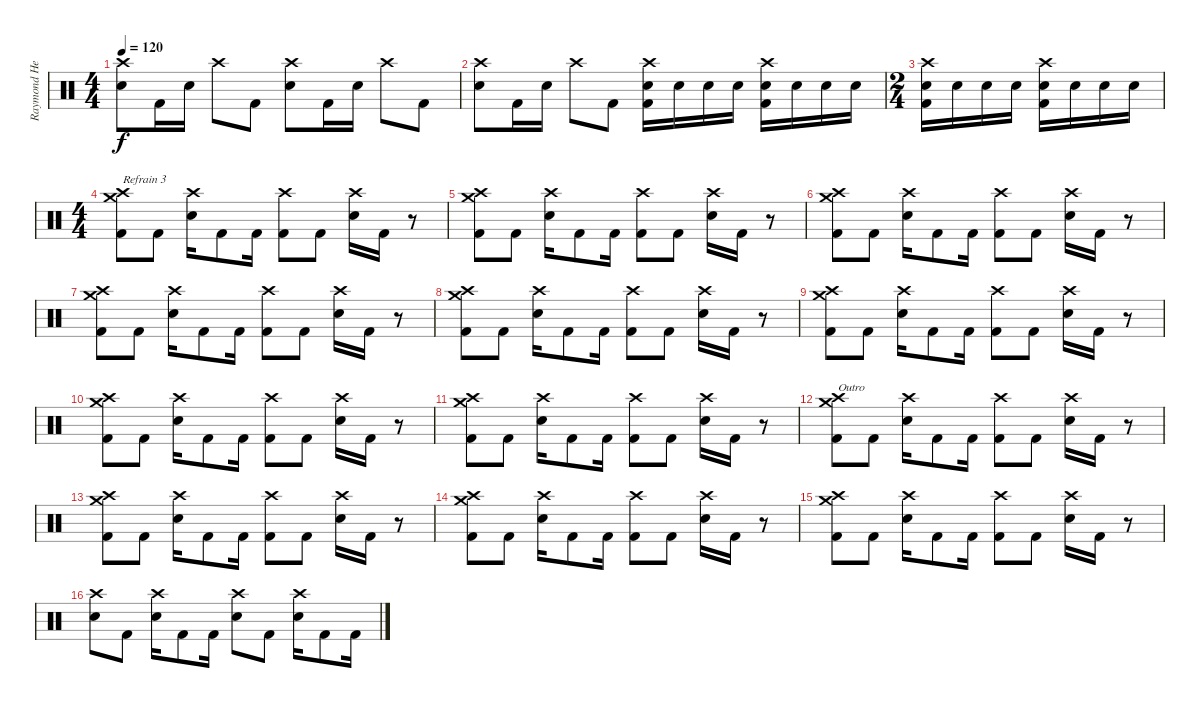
\track ("Raymond Herrera" "Raymond He") {instrument percussion}
\staff {score}
\articulation defaults
\ts (4 4)
\tempo 120
\clef neutral
\ks c
("Crash high (hit)" "Electric Snare (hit)").8{dy f} "Kick (hit) 2".16 "Electric Snare (hit)".16 "Crash high (hit)".8 "Kick (hit) 2".8 ("Crash high (hit)" "Electric Snare (hit)").8 "Kick (hit) 2".16 "Electric Snare (hit)".16 "Crash high (hit)".8 "Kick (hit) 2".8 |
("Crash high (hit)" "Electric Snare (hit)").8 "Kick (hit) 2".16 "Electric Snare (hit)".16 "Crash high (hit)".8 "Kick (hit) 2".8 ("Crash high (hit)" "Electric Snare (hit)" "Kick (hit) 2").16 "Electric Snare (hit)".16 "Electric Snare (hit)".16 "Electric Snare (hit)".16 ("Crash high (hit)" "Electric Snare (hit)" "Kick (hit) 2").16 "Electric Snare (hit)".16 "Electric Snare (hit)".16 "Electric Snare (hit)".16 |
\ts (2 4)
("Crash high (hit)" "Electric Snare (hit)" "Kick (hit) 2").16 "Electric Snare (hit)".16 "Electric Snare (hit)".16 "Electric Snare (hit)".16 ("Crash high (hit)" "Electric Snare (hit)" "Kick (hit) 2").16 "Electric Snare (hit)".16 "Electric Snare (hit)".16 "Electric Snare (hit)".16 |
\ts (4 4)
("Crash medium (hit)" "Crash high (hit)" "Kick (hit) 2").8{txt "Refrain 3"} "Kick (hit) 2".8 ("Crash high (hit)" "Electric Snare (hit)").16 "Kick (hit) 2".8 "Kick (hit) 2".16 ("Crash high (hit)" "Kick (hit) 2").8 "Kick (hit) 2".8 ("Crash high (hit)" "Electric Snare (hit)").16 "Kick (hit) 2".16 r.8 |
("Crash medium (hit)" "Crash high (hit)" "Kick (hit) 2").8 "Kick (hit) 2".8 ("Crash high (hit)" "Electric Snare (hit)").16 "Kick (hit) 2".8 "Kick (hit) 2".16 ("Crash high (hit)" "Kick (hit) 2").8 "Kick (hit) 2".8 ("Crash high (hit)" "Electric Snare (hit)").16 "Kick (hit) 2".16 r.8 |
("Crash medium (hit)" "Crash high (hit)" "Kick (hit) 2").8 "Kick (hit) 2".8 ("Crash high (hit)" "Electric Snare (hit)").16 "Kick (hit) 2".8 "Kick (hit) 2".16 ("Crash high (hit)" "Kick (hit) 2").8 "Kick (hit) 2".8 ("Crash high (hit)" "Electric Snare (hit)").16 "Kick (hit) 2".16 r.8 |
("Crash medium (hit)" "Crash high (hit)" "Kick (hit) 2").8 "Kick (hit) 2".8 ("Crash high (hit)" "Electric Snare (hit)").16 "Kick (hit) 2".8 "Kick (hit) 2".16 ("Crash high (hit)" "Kick (hit) 2").8 "Kick (hit) 2".8 ("Crash high (hit)" "Electric Snare (hit)").16 "Kick (hit) 2".16 r.8 |
("Crash medium (hit)" "Crash high (hit)" "Kick (hit) 2").8 "Kick (hit) 2".8 ("Crash high (hit)" "Electric Snare (hit)").16 "Kick (hit) 2".8 "Kick (hit) 2".16 ("Crash high (hit)" "Kick (hit) 2").8 "Kick (hit) 2".8 ("Crash high (hit)" "Electric Snare (hit)").16 "Kick (hit) 2".16 r.8 |
("Crash medium (hit)" "Crash high (hit)" "Kick (hit) 2").8 "Kick (hit) 2".8 ("Crash high (hit)" "Electric Snare (hit)").16 "Kick (hit) 2".8 "Kick (hit) 2".16 ("Crash high (hit)" "Kick (hit) 2").8 "Kick (hit) 2".8 ("Crash high (hit)" "Electric Snare (hit)").16 "Kick (hit) 2".16 r.8 |
("Crash medium (hit)" "Crash high (hit)" "Kick (hit) 2").8 "Kick (hit) 2".8 ("Crash high (hit)" "Electric Snare (hit)").16 "Kick (hit) 2".8 "Kick (hit) 2".16 ("Crash high (hit)" "Kick (hit) 2").8 "Kick (hit) 2".8 ("Crash high (hit)" "Electric Snare (hit)").16 "Kick (hit) 2".16 r.8 |
("Crash medium (hit)" "Crash high (hit)" "Kick (hit) 2").8 "Kick (hit) 2".8 ("Crash high (hit)" "Electric Snare (hit)").16 "Kick (hit) 2".8 "Kick (hit) 2".16 ("Crash high (hit)" "Kick (hit) 2").8 "Kick (hit) 2".8 ("Crash high (hit)" "Electric Snare (hit)").16 "Kick (hit) 2".16 r.8 |
("Crash medium (hit)" "Crash high (hit)" "Kick (hit) 2").8{txt "Outro"} "Kick (hit) 2".8 ("Crash high (hit)" "Electric Snare (hit)").16 "Kick (hit) 2".8 "Kick (hit) 2".16 ("Crash high (hit)" "Kick (hit) 2").8 "Kick (hit) 2".8 ("Crash high (hit)" "Electric Snare (hit)").16 "Kick (hit) 2".16 r.8 |
("Crash medium (hit)" "Crash high (hit)" "Kick (hit) 2").8 "Kick (hit) 2".8 ("Crash high (hit)" "Electric Snare (hit)").16 "Kick (hit) 2".8 "Kick (hit) 2".16 ("Crash high (hit)" "Kick (hit) 2").8 "Kick (hit) 2".8 ("Crash high (hit)" "Electric Snare (hit)").16 "Kick (hit) 2".16 r.8 |
("Crash medium (hit)" "Crash high (hit)" "Kick (hit) 2").8 "Kick (hit) 2".8 ("Crash high (hit)" "Electric Snare (hit)").16 "Kick (hit) 2".8 "Kick (hit) 2".16 ("Crash high (hit)" "Kick (hit) 2").8 "Kick (hit) 2".8 ("Crash high (hit)" "Electric Snare (hit)").16 "Kick (hit) 2".16 r.8 |
("Crash medium (hit)" "Crash high (hit)" "Kick (hit) 2").8 "Kick (hit) 2".8 ("Crash high (hit)" "Electric Snare (hit)").16 "Kick (hit) 2".8 "Kick (hit) 2".16 ("Crash high (hit)" "Kick (hit) 2").8 "Kick (hit) 2".8 ("Crash high (hit)" "Electric Snare (hit)").16 "Kick (hit) 2".16 r.8 |
("Crash high (hit)" "Electric Snare (hit)").8 "Kick (hit) 2".8 ("Crash high (hit)" "Electric Snare (hit)").16 "Kick (hit) 2".8 "Kick (hit) 2".16 ("Crash high (hit)" "Electric Snare (hit)").8 "Kick (hit) 2".8 ("Crash high (hit)" "Electric Snare (hit)").16 "Kick (hit) 2".8 "Kick (hit) 2".16
